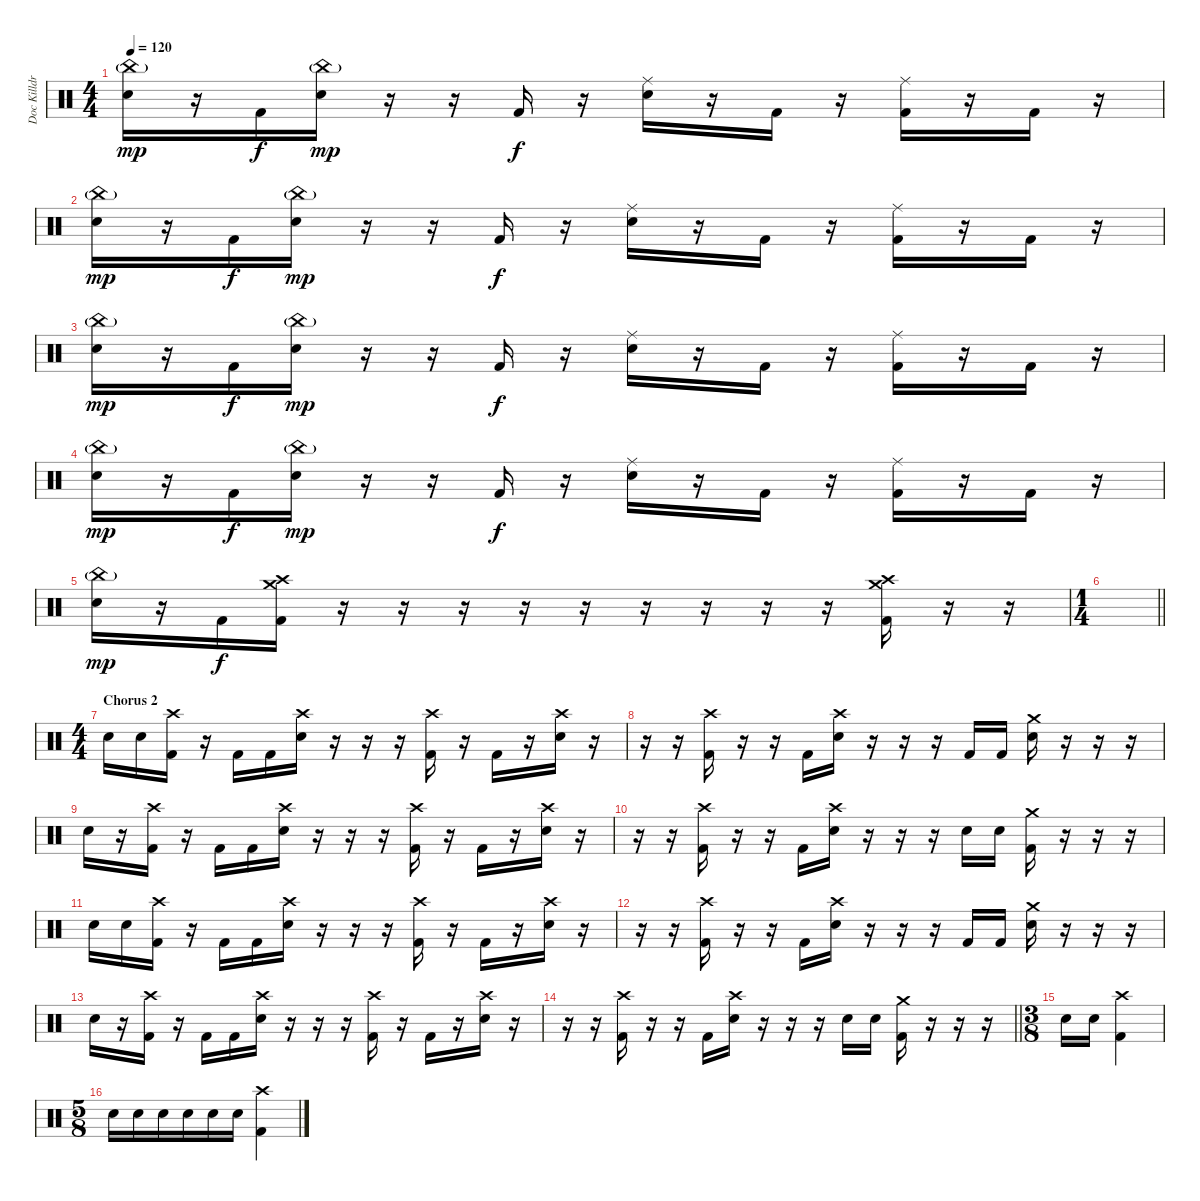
\track ("Doc Killdrums (What else?)" "Doc Killdr") {instrument percussion}
\staff {score}
\articulation defaults
\ts (4 4)
\tempo 120
\clef neutral
\ks c
("Snare (hit) 2" "China (hit)"{g}).16{dy mp} r.16 "Kick (hit) 2".16{dy f} ("Snare (hit) 2" "China (hit)"{g}).16{dy mp} r.16 r.16 "Kick (hit) 2".16{dy f} r.16 ("Snare (hit) 2" "Ride (middle)").16 r.16 "Kick (hit) 2".16 r.16 ("Kick (hit) 2" "Ride (middle)").16 r.16 "Kick (hit) 2".16 r.16 |
("Snare (hit) 2" "China (hit)"{g}).16{dy mp} r.16 "Kick (hit) 2".16{dy f} ("Snare (hit) 2" "China (hit)"{g}).16{dy mp} r.16 r.16 "Kick (hit) 2".16{dy f} r.16 ("Snare (hit) 2" "Ride (middle)").16 r.16 "Kick (hit) 2".16 r.16 ("Kick (hit) 2" "Ride (middle)").16 r.16 "Kick (hit) 2".16 r.16 |
("Snare (hit) 2" "China (hit)"{g}).16{dy mp} r.16 "Kick (hit) 2".16{dy f} ("Snare (hit) 2" "China (hit)"{g}).16{dy mp} r.16 r.16 "Kick (hit) 2".16{dy f} r.16 ("Snare (hit) 2" "Ride (middle)").16 r.16 "Kick (hit) 2".16 r.16 ("Kick (hit) 2" "Ride (middle)").16 r.16 "Kick (hit) 2".16 r.16 |
("Snare (hit) 2" "China (hit)"{g}).16{dy mp} r.16 "Kick (hit) 2".16{dy f} ("Snare (hit) 2" "China (hit)"{g}).16{dy mp} r.16 r.16 "Kick (hit) 2".16{dy f} r.16 ("Snare (hit) 2" "Ride (middle)").16 r.16 "Kick (hit) 2".16 r.16 ("Kick (hit) 2" "Ride (middle)").16 r.16 "Kick (hit) 2".16 r.16 |
("Snare (hit) 2" "China (hit)"{g}).16{dy mp} r.16 "Kick (hit) 2".16{dy f} ("Kick (hit) 2" "Crash medium (hit)" "Crash high (hit)").16 r.16 r.16 r.16 r.16 r.16 r.16 r.16 r.16 r.16 ("Kick (hit) 2" "Crash medium (hit)" "Crash high (hit)").16 r.16 r.16 |
\ts (1 4)
\barLineRight lightlight
|
\ts (4 4)
\section ("" "Chorus 2")
"Snare (hit) 2".16 "Snare (hit) 2".16 ("Kick (hit) 2" "Crash high (hit)").16 r.16 "Kick (hit) 2".16 "Kick (hit) 2".16 ("Snare (hit) 2" "Crash high (hit)").16 r.16 r.16 r.16 ("Kick (hit) 2" "Crash high (hit)").16 r.16 "Kick (hit) 2".16 r.16 ("Snare (hit) 2" "Crash high (hit)").16 r.16 |
r.16 r.16 ("Kick (hit) 2" "Crash high (hit)").16 r.16 r.16 "Kick (hit) 2".16 ("Snare (hit) 2" "Crash high (hit)").16 r.16 r.16 r.16 "Kick (hit) 2".16 "Kick (hit) 2".16 ("Snare (hit) 2" "Crash medium (hit)").16 r.16 r.16 r.16 |
"Snare (hit) 2".16 r.16 ("Kick (hit) 2" "Crash high (hit)").16 r.16 "Kick (hit) 2".16 "Kick (hit) 2".16 ("Snare (hit) 2" "Crash high (hit)").16 r.16 r.16 r.16 ("Kick (hit) 2" "Crash high (hit)").16 r.16 "Kick (hit) 2".16 r.16 ("Snare (hit) 2" "Crash high (hit)").16 r.16 |
r.16 r.16 ("Kick (hit) 2" "Crash high (hit)").16 r.16 r.16 "Kick (hit) 2".16 ("Snare (hit) 2" "Crash high (hit)").16 r.16 r.16 r.16 "Snare (hit) 2".16 "Snare (hit) 2".16 ("Kick (hit) 2" "Crash medium (hit)").16 r.16 r.16 r.16 |
"Snare (hit) 2".16 "Snare (hit) 2".16 ("Kick (hit) 2" "Crash high (hit)").16 r.16 "Kick (hit) 2".16 "Kick (hit) 2".16 ("Snare (hit) 2" "Crash high (hit)").16 r.16 r.16 r.16 ("Kick (hit) 2" "Crash high (hit)").16 r.16 "Kick (hit) 2".16 r.16 ("Snare (hit) 2" "Crash high (hit)").16 r.16 |
r.16 r.16 ("Kick (hit) 2" "Crash high (hit)").16 r.16 r.16 "Kick (hit) 2".16 ("Snare (hit) 2" "Crash high (hit)").16 r.16 r.16 r.16 "Kick (hit) 2".16 "Kick (hit) 2".16 ("Snare (hit) 2" "Crash medium (hit)").16 r.16 r.16 r.16 |
"Snare (hit) 2".16 r.16 ("Kick (hit) 2" "Crash high (hit)").16 r.16 "Kick (hit) 2".16 "Kick (hit) 2".16 ("Snare (hit) 2" "Crash high (hit)").16 r.16 r.16 r.16 ("Kick (hit) 2" "Crash high (hit)").16 r.16 "Kick (hit) 2".16 r.16 ("Snare (hit) 2" "Crash high (hit)").16 r.16 |
\barLineRight lightlight
r.16 r.16 ("Kick (hit) 2" "Crash high (hit)").16 r.16 r.16 "Kick (hit) 2".16 ("Snare (hit) 2" "Crash high (hit)").16 r.16 r.16 r.16 "Snare (hit) 2".16 "Snare (hit) 2".16 ("Kick (hit) 2" "Crash medium (hit)").16 r.16 r.16 r.16 |
\ts (3 8)
"Snare (hit) 2".16 "Snare (hit) 2".16 ("Kick (hit) 2" "Crash high (hit)").4 |
\ts (5 8)
"Snare (hit) 2".16 "Snare (hit) 2".16 "Snare (hit) 2".16 "Snare (hit) 2".16 "Snare (hit) 2".16 "Snare (hit) 2".16 ("Kick (hit) 2" "Crash high (hit)").4
